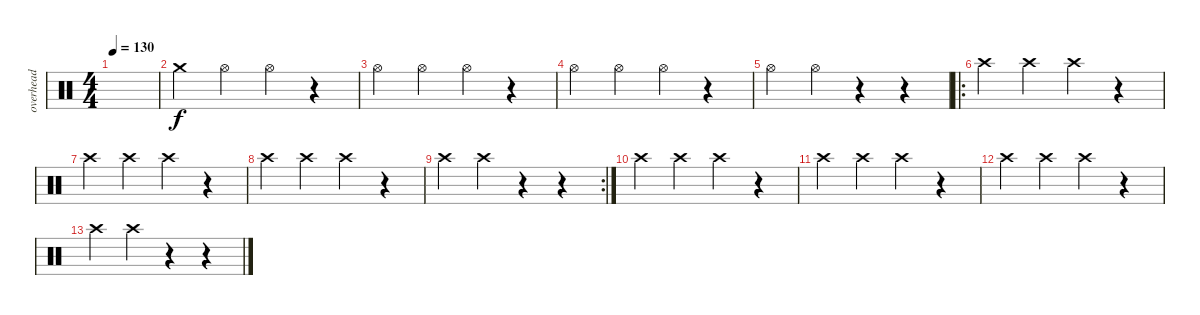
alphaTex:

\track ("overhead " "overhead ") {instrument percussion}
\staff {score}
\articulation defaults
\ts (4 4)
\tempo 130
\clef neutral
\ks c
|
"Crash medium (hit)".4 "Hi-Hat (open)".4 "Hi-Hat (open)".4 r.4 |
"Hi-Hat (open)".4 "Hi-Hat (open)".4 "Hi-Hat (open)".4 r.4 |
"Hi-Hat (open)".4 "Hi-Hat (open)".4 "Hi-Hat (open)".4 r.4 |
"Hi-Hat (open)".4 "Hi-Hat (open)".4 r.4 r.4 |
\ro "Crash high (hit)".4 "Crash high (hit)".4 "Crash high (hit)".4
r.4 |
"Crash high (hit)".4 "Crash high (hit)".4 "Crash high (hit)".4 r.4 |
"Crash high (hit)".4 "Crash high (hit)".4 "Crash high (hit)".4 r.4 |
\rc 2 "Crash high (hit)".4 "Crash high (hit)".4
r.4 r.4 |
"Crash high (hit)".4 "Crash high (hit)".4 "Crash high (hit)".4 r.4 |
"Crash high (hit)".4 "Crash high (hit)".4 "Crash high (hit)".4 r.4 |
"Crash high (hit)".4 "Crash high (hit)".4 "Crash high (hit)".4 r.4 |
"Crash high (hit)".4 "Crash high (hit)".4 r.4 r.4
